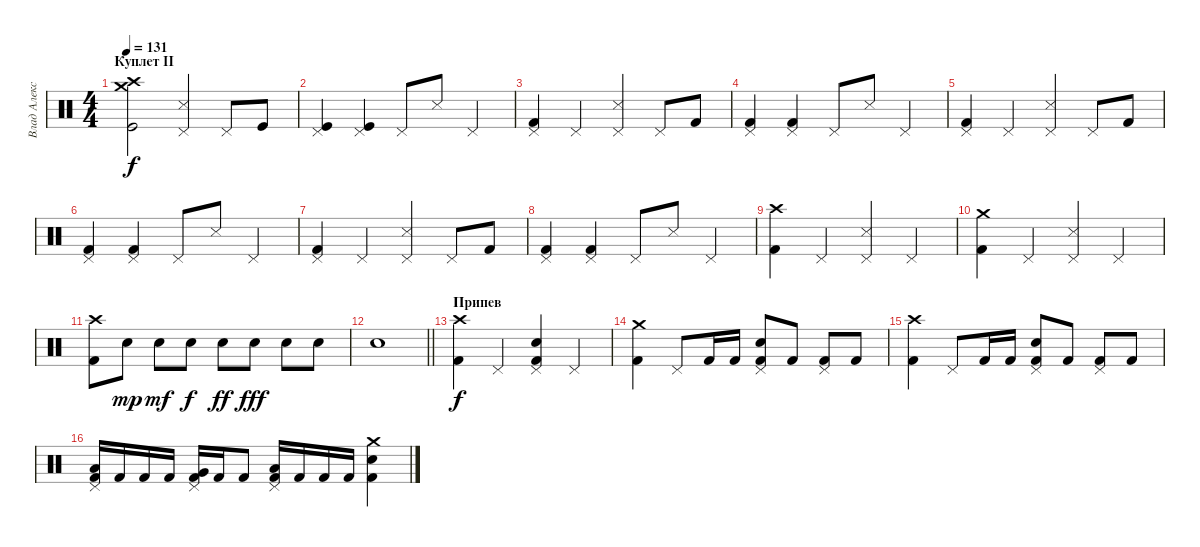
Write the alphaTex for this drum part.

\track ("Влад Алексеенко" "Влад Алекс") {instrument percussion}
\staff {score}
\articulation defaults
\ts (4 4)
\section ("" "Куплет II")
\tempo 131
\clef neutral
\ks c
("Crash medium (hit)" "Crash high (hit)" "Kick (hit)").2{dy f} ("Pedal Hi-Hat (hit)" "Metronome (hit)").4 "Pedal Hi-Hat (hit)".8 "Kick (hit)".8 |
("Pedal Hi-Hat (hit)" "Kick (hit)").4 ("Pedal Hi-Hat (hit)" "Kick (hit)").4 "Pedal Hi-Hat (hit)".8 "Metronome (hit)".8 "Pedal Hi-Hat (hit)".4 |
("Pedal Hi-Hat (hit)" "Kick (hit) 2").4 "Pedal Hi-Hat (hit)".4 ("Pedal Hi-Hat (hit)" "Metronome (hit)").4 "Pedal Hi-Hat (hit)".8 "Kick (hit) 2".8 |
("Pedal Hi-Hat (hit)" "Kick (hit) 2").4 ("Pedal Hi-Hat (hit)" "Kick (hit) 2").4 "Pedal Hi-Hat (hit)".8 "Metronome (hit)".8 "Pedal Hi-Hat (hit)".4 |
("Pedal Hi-Hat (hit)" "Kick (hit) 2").4 "Pedal Hi-Hat (hit)".4 ("Pedal Hi-Hat (hit)" "Metronome (hit)").4 "Pedal Hi-Hat (hit)".8 "Kick (hit) 2".8 |
("Pedal Hi-Hat (hit)" "Kick (hit) 2").4 ("Pedal Hi-Hat (hit)" "Kick (hit) 2").4 "Pedal Hi-Hat (hit)".8 "Metronome (hit)".8 "Pedal Hi-Hat (hit)".4 |
("Pedal Hi-Hat (hit)" "Kick (hit) 2").4 "Pedal Hi-Hat (hit)".4 ("Pedal Hi-Hat (hit)" "Metronome (hit)").4 "Pedal Hi-Hat (hit)".8 "Kick (hit) 2".8 |
("Pedal Hi-Hat (hit)" "Kick (hit) 2").4 ("Pedal Hi-Hat (hit)" "Kick (hit) 2").4 "Pedal Hi-Hat (hit)".8 "Metronome (hit)".8 "Pedal Hi-Hat (hit)".4 |
("Crash high (hit)" "Kick (hit) 2").4 "Pedal Hi-Hat (hit)".4 ("Pedal Hi-Hat (hit)" "Metronome (hit)").4 "Pedal Hi-Hat (hit)".4 |
("Crash medium (hit)" "Kick (hit) 2").4 "Pedal Hi-Hat (hit)".4 ("Pedal Hi-Hat (hit)" "Metronome (hit)").4 "Pedal Hi-Hat (hit)".4 |
("Crash high (hit)" "Kick (hit) 2").8 "Electric Snare (hit)".8{dy mp} "Electric Snare (hit)".8{dy mf} "Electric Snare (hit)".8{dy f} "Electric Snare (hit)".8{dy ff} "Electric Snare (hit)".8{dy fff} "Electric Snare (hit)".8 "Electric Snare (hit)".8 |
\barLineRight lightlight "Electric Snare (hit)".1
|
\section ("" "Припев")
("Crash high (hit)" "Kick (hit) 2").4{dy f} "Pedal Hi-Hat (hit)".4 ("Pedal Hi-Hat (hit)" "Electric Snare (hit)" "Kick (hit) 2").4 "Pedal Hi-Hat (hit)".4 |
("Crash medium (hit)" "Kick (hit) 2").4 "Pedal Hi-Hat (hit)".8 "Kick (hit) 2".16 "Kick (hit) 2".16 ("Pedal Hi-Hat (hit)" "Electric Snare (hit)" "Kick (hit) 2").8 "Kick (hit) 2".8 ("Pedal Hi-Hat (hit)" "Kick (hit) 2").8 "Kick (hit) 2".8 |
("Crash high (hit)" "Kick (hit) 2").4 "Pedal Hi-Hat (hit)".8 "Kick (hit) 2".16 "Kick (hit) 2".16 ("Pedal Hi-Hat (hit)" "Electric Snare (hit)" "Kick (hit) 2").8 "Kick (hit) 2".8 ("Pedal Hi-Hat (hit)" "Kick (hit) 2").8 "Kick (hit) 2".8 |
("Low Tom (hit)" "Kick (hit) 2" "Pedal Hi-Hat (hit)").16 "Kick (hit) 2".16 "Kick (hit) 2".16 "Kick (hit) 2".16 ("Very Low Tom (hit)" "Kick (hit) 2" "Pedal Hi-Hat (hit)").16 "Kick (hit) 2".16 "Kick (hit) 2".8 ("Low Floor Tom (hit)" "Kick (hit) 2" "Pedal Hi-Hat (hit)").16 "Kick (hit) 2".16 "Kick (hit) 2".16 "Kick (hit) 2".16 ("Crash medium (hit)" "Electric Snare (hit)" "Kick (hit) 2").4
